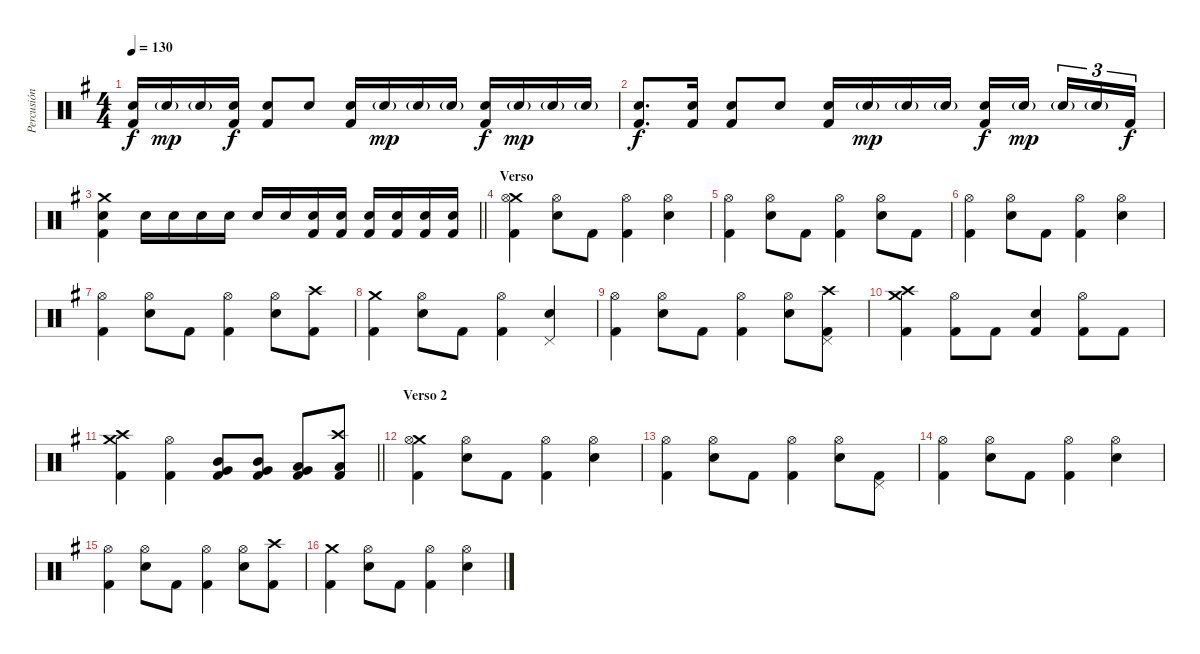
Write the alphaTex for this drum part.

\track ("Percusión" "Percusión") {instrument percussion}
\staff {score}
\articulation defaults
\ts (4 4)
\tempo 130
\clef neutral
\ks g
("Electric Snare (hit)" "Kick (hit) 2").16{dy f} "Electric Snare (hit)"{g}.16{dy mp} "Electric Snare (hit)"{g}.16 ("Electric Snare (hit)" "Kick (hit) 2").16{dy f} ("Electric Snare (hit)" "Kick (hit) 2").8 "Electric Snare (hit)".8 ("Electric Snare (hit)" "Kick (hit) 2").16 "Electric Snare (hit)"{g}.16{dy mp} "Electric Snare (hit)"{g}.16 "Electric Snare (hit)"{g}.16 ("Electric Snare (hit)" "Kick (hit) 2").16{dy f} "Electric Snare (hit)"{g}.16{dy mp} "Electric Snare (hit)"{g}.16 "Electric Snare (hit)"{g}.16 |
("Electric Snare (hit)" "Kick (hit) 2").8{d dy f} ("Electric Snare (hit)" "Kick (hit) 2").16 ("Electric Snare (hit)" "Kick (hit) 2").8 "Electric Snare (hit)".8 ("Electric Snare (hit)" "Kick (hit) 2").16 "Electric Snare (hit)"{g}.16{dy mp} "Electric Snare (hit)"{g}.16 "Electric Snare (hit)"{g}.16 ("Electric Snare (hit)" "Kick (hit) 2").16{dy f} "Electric Snare (hit)"{g}.16{dy mp beam splitsecondary} "Electric Snare (hit)"{g}.16{tu (3 2)} "Electric Snare (hit)"{g}.16{tu (3 2)} "Kick (hit) 2".16{tu (3 2) dy f} |
\barLineRight lightlight
("Crash medium (hit)" "Electric Snare (hit)" "Kick (hit) 2").4 "Electric Snare (hit)".16 "Electric Snare (hit)".16 "Electric Snare (hit)".16 "Electric Snare (hit)".16 "Electric Snare (hit)".16 "Electric Snare (hit)".16 ("Electric Snare (hit)" "Kick (hit) 2").16 ("Electric Snare (hit)" "Kick (hit) 2").16 ("Electric Snare (hit)" "Kick (hit) 2").16 ("Electric Snare (hit)" "Kick (hit) 2").16 ("Electric Snare (hit)" "Kick (hit) 2").16 ("Electric Snare (hit)" "Kick (hit) 2").16 |
\section ("" "Verso")
("Crash medium (hit)" "Hi-Hat (open)" "Kick (hit) 2").4 ("Hi-Hat (open)" "Electric Snare (hit)").8 "Kick (hit) 2".8 ("Hi-Hat (open)" "Kick (hit) 2").4 ("Hi-Hat (open)" "Electric Snare (hit)").4 |
("Hi-Hat (open)" "Kick (hit) 2").4 ("Hi-Hat (open)" "Electric Snare (hit)").8 "Kick (hit) 2".8 ("Hi-Hat (open)" "Kick (hit) 2").4 ("Hi-Hat (open)" "Electric Snare (hit)").8 "Kick (hit) 2".8 |
("Hi-Hat (open)" "Kick (hit) 2").4 ("Hi-Hat (open)" "Electric Snare (hit)").8 "Kick (hit) 2".8 ("Hi-Hat (open)" "Kick (hit) 2").4 ("Hi-Hat (open)" "Electric Snare (hit)").4 |
("Hi-Hat (open)" "Kick (hit) 2").4 ("Hi-Hat (open)" "Electric Snare (hit)").8 "Kick (hit) 2".8 ("Hi-Hat (open)" "Kick (hit) 2").4 ("Hi-Hat (open)" "Electric Snare (hit)").8 ("Crash high (hit)" "Kick (hit) 2").8 |
("Crash medium (hit)" "Kick (hit) 2").4 ("Hi-Hat (open)" "Electric Snare (hit)").8 "Kick (hit) 2".8 ("Hi-Hat (open)" "Kick (hit) 2").4 ("Pedal Hi-Hat (hit)" "Electric Snare (hit)").4 |
("Hi-Hat (open)" "Kick (hit) 2").4 ("Hi-Hat (open)" "Electric Snare (hit)").8 "Kick (hit) 2".8 ("Hi-Hat (open)" "Kick (hit) 2").4 ("Hi-Hat (open)" "Electric Snare (hit)").8 ("Crash high (hit)" "Pedal Hi-Hat (hit)" "Kick (hit) 2").8 |
("Crash medium (hit)" "Crash high (hit)" "Kick (hit) 2").4 ("Hi-Hat (open)" "Kick (hit) 2").8 "Kick (hit) 2".8 ("Electric Snare (hit)" "Kick (hit) 2").4 ("Hi-Hat (open)" "Kick (hit) 2").8 "Kick (hit) 2".8 |
\barLineRight lightlight
("Crash medium (hit)" "Crash high (hit)" "Kick (hit) 2").4 ("Hi-Hat (open)" "Kick (hit) 2").4 ("Mid Tom (hit)" "Very Low Tom (hit)" "Kick (hit) 2").8 ("Mid Tom (hit)" "Very Low Tom (hit)" "Kick (hit) 2").8 ("Low Tom (hit)" "Very Low Tom (hit)" "Kick (hit) 2").8 ("Crash high (hit)" "Low Tom (hit)" "Kick (hit) 2").8 |
\section ("" "Verso 2")
("Crash medium (hit)" "Hi-Hat (open)" "Kick (hit) 2").4 ("Hi-Hat (open)" "Electric Snare (hit)").8 "Kick (hit) 2".8 ("Hi-Hat (open)" "Kick (hit) 2").4 ("Hi-Hat (open)" "Electric Snare (hit)").4 |
("Hi-Hat (open)" "Kick (hit) 2").4 ("Hi-Hat (open)" "Electric Snare (hit)").8 "Kick (hit) 2".8 ("Hi-Hat (open)" "Kick (hit) 2").4 ("Hi-Hat (open)" "Electric Snare (hit)").8 ("Pedal Hi-Hat (hit)" "Kick (hit) 2").8 |
("Hi-Hat (open)" "Kick (hit) 2").4 ("Hi-Hat (open)" "Electric Snare (hit)").8 "Kick (hit) 2".8 ("Hi-Hat (open)" "Kick (hit) 2").4 ("Hi-Hat (open)" "Electric Snare (hit)").4 |
("Hi-Hat (open)" "Kick (hit) 2").4 ("Hi-Hat (open)" "Electric Snare (hit)").8 "Kick (hit) 2".8 ("Hi-Hat (open)" "Kick (hit) 2").4 ("Hi-Hat (open)" "Electric Snare (hit)").8 ("Crash high (hit)" "Kick (hit) 2").8 |
("Crash medium (hit)" "Kick (hit) 2").4 ("Hi-Hat (open)" "Electric Snare (hit)").8 "Kick (hit) 2".8 ("Hi-Hat (open)" "Kick (hit) 2").4 ("Hi-Hat (open)" "Electric Snare (hit)").4
